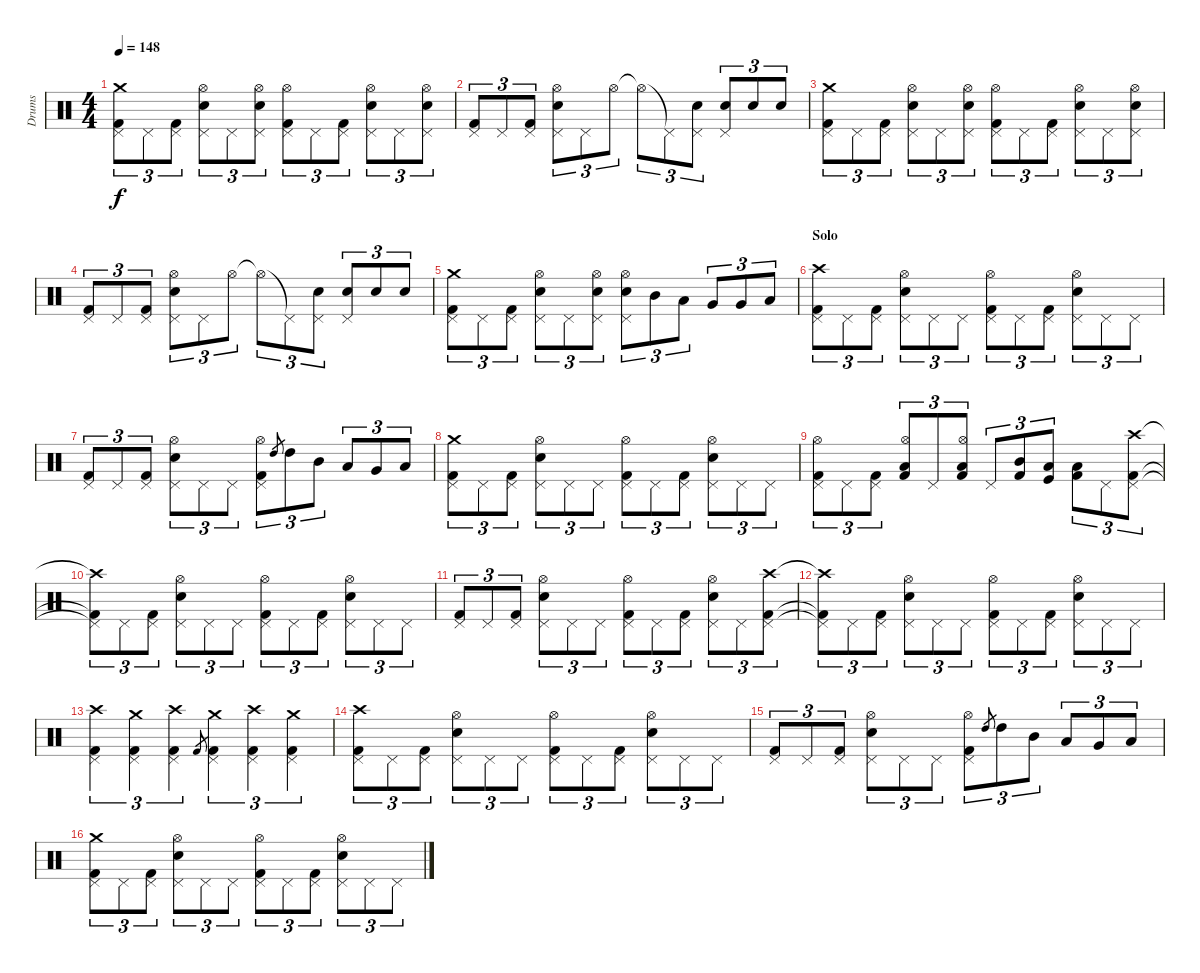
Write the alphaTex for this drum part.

\track ("Drums" "Drums") {instrument percussion}
\staff {score}
\articulation defaults
\ts (4 4)
\tempo 148
\clef neutral
\ks c
("Kick (hit) 2" "Pedal Hi-Hat (hit)" "Crash medium (hit)").8{tu (3 2) dy f} "Pedal Hi-Hat (hit)".8{tu (3 2)} ("Kick (hit) 2" "Pedal Hi-Hat (hit)").8{tu (3 2)} ("Snare (hit) 2" "Pedal Hi-Hat (hit)" "Hi-Hat (open)").8{tu (3 2)} "Pedal Hi-Hat (hit)".8{tu (3 2)} ("Snare (hit) 2" "Pedal Hi-Hat (hit)" "Hi-Hat (open)").8{tu (3 2)} ("Kick (hit) 2" "Pedal Hi-Hat (hit)" "Hi-Hat (open)").8{tu (3 2)} "Pedal Hi-Hat (hit)".8{tu (3 2)} ("Kick (hit) 2" "Pedal Hi-Hat (hit)").8{tu (3 2)} ("Snare (hit) 2" "Pedal Hi-Hat (hit)" "Hi-Hat (open)").8{tu (3 2)} "Pedal Hi-Hat (hit)".8{tu (3 2)} ("Snare (hit) 2" "Pedal Hi-Hat (hit)" "Hi-Hat (open)").8{tu (3 2)} |
("Kick (hit) 2" "Pedal Hi-Hat (hit)").8{tu (3 2)} "Pedal Hi-Hat (hit)".8{tu (3 2)} ("Kick (hit) 2" "Pedal Hi-Hat (hit)").8{tu (3 2)} ("Snare (hit) 2" "Pedal Hi-Hat (hit)" "Hi-Hat (open)").8{tu (3 2)} "Pedal Hi-Hat (hit)".8{tu (3 2)} "Hi-Hat (open)".8{tu (3 2)} "Hi-Hat (open)"{t}.8{tu (3 2)} "Pedal Hi-Hat (hit)"{t}.8{tu (3 2)} ("Snare (hit) 2" "Pedal Hi-Hat (hit)").8{tu (3 2)} ("Snare (hit) 2" "Pedal Hi-Hat (hit)").8{tu (3 2)} "Snare (hit) 2".8{tu (3 2)} "Snare (hit) 2".8{tu (3 2)} |
("Kick (hit) 2" "Pedal Hi-Hat (hit)" "Crash medium (hit)").8{tu (3 2)} "Pedal Hi-Hat (hit)".8{tu (3 2)} ("Kick (hit) 2" "Pedal Hi-Hat (hit)").8{tu (3 2)} ("Snare (hit) 2" "Pedal Hi-Hat (hit)" "Hi-Hat (open)").8{tu (3 2)} "Pedal Hi-Hat (hit)".8{tu (3 2)} ("Snare (hit) 2" "Pedal Hi-Hat (hit)" "Hi-Hat (open)").8{tu (3 2)} ("Kick (hit) 2" "Pedal Hi-Hat (hit)" "Hi-Hat (open)").8{tu (3 2)} "Pedal Hi-Hat (hit)".8{tu (3 2)} ("Kick (hit) 2" "Pedal Hi-Hat (hit)").8{tu (3 2)} ("Snare (hit) 2" "Pedal Hi-Hat (hit)" "Hi-Hat (open)").8{tu (3 2)} "Pedal Hi-Hat (hit)".8{tu (3 2)} ("Snare (hit) 2" "Pedal Hi-Hat (hit)" "Hi-Hat (open)").8{tu (3 2)} |
("Kick (hit) 2" "Pedal Hi-Hat (hit)").8{tu (3 2)} "Pedal Hi-Hat (hit)".8{tu (3 2)} ("Kick (hit) 2" "Pedal Hi-Hat (hit)").8{tu (3 2)} ("Snare (hit) 2" "Pedal Hi-Hat (hit)" "Hi-Hat (open)").8{tu (3 2)} "Pedal Hi-Hat (hit)".8{tu (3 2)} "Hi-Hat (open)".8{tu (3 2)} "Hi-Hat (open)"{t}.8{tu (3 2)} "Pedal Hi-Hat (hit)"{t}.8{tu (3 2)} ("Snare (hit) 2" "Pedal Hi-Hat (hit)").8{tu (3 2)} ("Snare (hit) 2" "Pedal Hi-Hat (hit)").8{tu (3 2)} "Snare (hit) 2".8{tu (3 2)} "Snare (hit) 2".8{tu (3 2)} |
("Kick (hit) 2" "Pedal Hi-Hat (hit)" "Crash medium (hit)").8{tu (3 2)} "Pedal Hi-Hat (hit)".8{tu (3 2)} ("Kick (hit) 2" "Pedal Hi-Hat (hit)").8{tu (3 2)} ("Snare (hit) 2" "Pedal Hi-Hat (hit)" "Hi-Hat (open)").8{tu (3 2)} "Pedal Hi-Hat (hit)".8{tu (3 2)} ("Snare (hit) 2" "Pedal Hi-Hat (hit)" "Hi-Hat (open)").8{tu (3 2)} ("Snare (hit) 2" "Pedal Hi-Hat (hit)" "Hi-Hat (open)").8{tu (3 2)} "Mid Tom (hit)".8{tu (3 2)} "Low Tom (hit)".8{tu (3 2)} "Very Low Tom (hit)".8{tu (3 2)} "Very Low Tom (hit)".8{tu (3 2)} "Low Floor Tom (hit)".8{tu (3 2)} |
\section ("" "Solo")
("Kick (hit) 2" "Pedal Hi-Hat (hit)" "Crash high (hit)").8{tu (3 2)} "Pedal Hi-Hat (hit)".8{tu (3 2)} ("Kick (hit) 2" "Pedal Hi-Hat (hit)").8{tu (3 2)} ("Snare (hit) 2" "Pedal Hi-Hat (hit)" "Hi-Hat (open)").8{tu (3 2)} "Pedal Hi-Hat (hit)".8{tu (3 2)} "Pedal Hi-Hat (hit)".8{tu (3 2)} ("Kick (hit) 2" "Pedal Hi-Hat (hit)" "Hi-Hat (open)").8{tu (3 2)} "Pedal Hi-Hat (hit)".8{tu (3 2)} ("Kick (hit) 2" "Pedal Hi-Hat (hit)").8{tu (3 2)} ("Snare (hit) 2" "Pedal Hi-Hat (hit)" "Hi-Hat (open)").8{tu (3 2)} "Pedal Hi-Hat (hit)".8{tu (3 2)} "Pedal Hi-Hat (hit)".8{tu (3 2)} |
("Kick (hit) 2" "Pedal Hi-Hat (hit)").8{tu (3 2)} "Pedal Hi-Hat (hit)".8{tu (3 2)} ("Kick (hit) 2" "Pedal Hi-Hat (hit)").8{tu (3 2)} ("Snare (hit) 2" "Pedal Hi-Hat (hit)" "Hi-Hat (open)").8{tu (3 2)} "Pedal Hi-Hat (hit)".8{tu (3 2)} "Pedal Hi-Hat (hit)".8{tu (3 2)} ("Kick (hit) 2" "Pedal Hi-Hat (hit)" "Hi-Hat (open)").8{tu (3 2)} "High Tom (hit)".8{gr} "High Tom (hit)".8{tu (3 2)} "Mid Tom (hit)".8{tu (3 2)} "Low Tom (hit)".8{tu (3 2)} "Very Low Tom (hit)".8{tu (3 2)} "Low Floor Tom (hit)".8{tu (3 2)} |
("Kick (hit) 2" "Pedal Hi-Hat (hit)" "Crash medium (hit)").8{tu (3 2)} "Pedal Hi-Hat (hit)".8{tu (3 2)} ("Kick (hit) 2" "Pedal Hi-Hat (hit)").8{tu (3 2)} ("Snare (hit) 2" "Pedal Hi-Hat (hit)" "Hi-Hat (open)").8{tu (3 2)} "Pedal Hi-Hat (hit)".8{tu (3 2)} "Pedal Hi-Hat (hit)".8{tu (3 2)} ("Kick (hit) 2" "Pedal Hi-Hat (hit)" "Hi-Hat (open)").8{tu (3 2)} "Pedal Hi-Hat (hit)".8{tu (3 2)} ("Kick (hit) 2" "Pedal Hi-Hat (hit)").8{tu (3 2)} ("Snare (hit) 2" "Pedal Hi-Hat (hit)" "Hi-Hat (open)").8{tu (3 2)} "Pedal Hi-Hat (hit)".8{tu (3 2)} "Pedal Hi-Hat (hit)".8{tu (3 2)} |
("Kick (hit) 2" "Pedal Hi-Hat (hit)" "Hi-Hat (open)").8{tu (3 2)} "Pedal Hi-Hat (hit)".8{tu (3 2)} ("Kick (hit) 2" "Pedal Hi-Hat (hit)").8{tu (3 2)} ("Low Tom (hit)" "Kick (hit) 2" "Hi-Hat (open)").8{tu (3 2)} "Pedal Hi-Hat (hit)".8{tu (3 2)} ("Low Tom (hit)" "Kick (hit) 2" "Hi-Hat (open)").8{tu (3 2)} "Pedal Hi-Hat (hit)".8{tu (3 2)} ("Mid Tom (hit)" "Kick (hit) 2").8{tu (3 2)} ("Low Tom (hit)" "Kick (hit)").8{tu (3 2)} ("Low Floor Tom (hit)" "Kick (hit) 2").8{tu (3 2)} "Pedal Hi-Hat (hit)".8{tu (3 2)} ("Kick (hit) 2" "Pedal Hi-Hat (hit)" "Crash high (hit)").8{tu (3 2)} |
("Kick (hit) 2"{t} "Pedal Hi-Hat (hit)"{t} "Crash high (hit)"{t}).8{tu (3 2)} "Pedal Hi-Hat (hit)".8{tu (3 2)} ("Kick (hit) 2" "Pedal Hi-Hat (hit)").8{tu (3 2)} ("Snare (hit) 2" "Pedal Hi-Hat (hit)" "Hi-Hat (open)").8{tu (3 2)} "Pedal Hi-Hat (hit)".8{tu (3 2)} "Pedal Hi-Hat (hit)".8{tu (3 2)} ("Kick (hit) 2" "Pedal Hi-Hat (hit)" "Hi-Hat (open)").8{tu (3 2)} "Pedal Hi-Hat (hit)".8{tu (3 2)} ("Kick (hit) 2" "Pedal Hi-Hat (hit)").8{tu (3 2)} ("Snare (hit) 2" "Pedal Hi-Hat (hit)" "Hi-Hat (open)").8{tu (3 2)} "Pedal Hi-Hat (hit)".8{tu (3 2)} "Pedal Hi-Hat (hit)".8{tu (3 2)} |
("Kick (hit) 2" "Pedal Hi-Hat (hit)").8{tu (3 2)} "Pedal Hi-Hat (hit)".8{tu (3 2)} ("Kick (hit) 2" "Pedal Hi-Hat (hit)").8{tu (3 2)} ("Snare (hit) 2" "Pedal Hi-Hat (hit)" "Hi-Hat (open)").8{tu (3 2)} "Pedal Hi-Hat (hit)".8{tu (3 2)} "Pedal Hi-Hat (hit)".8{tu (3 2)} ("Kick (hit) 2" "Pedal Hi-Hat (hit)" "Hi-Hat (open)").8{tu (3 2)} "Pedal Hi-Hat (hit)".8{tu (3 2)} ("Kick (hit) 2" "Pedal Hi-Hat (hit)").8{tu (3 2)} ("Snare (hit) 2" "Pedal Hi-Hat (hit)" "Hi-Hat (open)").8{tu (3 2)} "Pedal Hi-Hat (hit)".8{tu (3 2)} ("Kick (hit) 2" "Pedal Hi-Hat (hit)" "Crash high (hit)").8{tu (3 2)} |
("Kick (hit) 2"{t} "Pedal Hi-Hat (hit)"{t} "Crash high (hit)"{t}).8{tu (3 2)} "Pedal Hi-Hat (hit)".8{tu (3 2)} ("Kick (hit) 2" "Pedal Hi-Hat (hit)").8{tu (3 2)} ("Snare (hit) 2" "Pedal Hi-Hat (hit)" "Hi-Hat (open)").8{tu (3 2)} "Pedal Hi-Hat (hit)".8{tu (3 2)} "Pedal Hi-Hat (hit)".8{tu (3 2)} ("Kick (hit) 2" "Pedal Hi-Hat (hit)" "Hi-Hat (open)").8{tu (3 2)} "Pedal Hi-Hat (hit)".8{tu (3 2)} ("Kick (hit) 2" "Pedal Hi-Hat (hit)").8{tu (3 2)} ("Snare (hit) 2" "Pedal Hi-Hat (hit)" "Hi-Hat (open)").8{tu (3 2)} "Pedal Hi-Hat (hit)".8{tu (3 2)} "Pedal Hi-Hat (hit)".8{tu (3 2)} |
("Kick (hit) 2" "Pedal Hi-Hat (hit)" "Crash high (hit)").4{tu (3 2)} ("Kick (hit) 2" "Pedal Hi-Hat (hit)" "Crash medium (hit)").4{tu (3 2)} ("Kick (hit) 2" "Pedal Hi-Hat (hit)" "Crash high (hit)").4{tu (3 2)} "Kick (hit) 2".8{gr} ("Kick (hit) 2" "Pedal Hi-Hat (hit)" "Crash medium (hit)").4{tu (3 2)} ("Kick (hit) 2" "Pedal Hi-Hat (hit)" "Crash high (hit)").4{tu (3 2)} ("Kick (hit) 2" "Pedal Hi-Hat (hit)" "Crash medium (hit)").4{tu (3 2)} |
("Kick (hit) 2" "Pedal Hi-Hat (hit)" "Crash high (hit)").8{tu (3 2)} "Pedal Hi-Hat (hit)".8{tu (3 2)} ("Kick (hit) 2" "Pedal Hi-Hat (hit)").8{tu (3 2)} ("Snare (hit) 2" "Pedal Hi-Hat (hit)" "Hi-Hat (open)").8{tu (3 2)} "Pedal Hi-Hat (hit)".8{tu (3 2)} "Pedal Hi-Hat (hit)".8{tu (3 2)} ("Kick (hit) 2" "Pedal Hi-Hat (hit)" "Hi-Hat (open)").8{tu (3 2)} "Pedal Hi-Hat (hit)".8{tu (3 2)} ("Kick (hit) 2" "Pedal Hi-Hat (hit)").8{tu (3 2)} ("Snare (hit) 2" "Pedal Hi-Hat (hit)" "Hi-Hat (open)").8{tu (3 2)} "Pedal Hi-Hat (hit)".8{tu (3 2)} "Pedal Hi-Hat (hit)".8{tu (3 2)} |
("Kick (hit) 2" "Pedal Hi-Hat (hit)").8{tu (3 2)} "Pedal Hi-Hat (hit)".8{tu (3 2)} ("Kick (hit) 2" "Pedal Hi-Hat (hit)").8{tu (3 2)} ("Snare (hit) 2" "Pedal Hi-Hat (hit)" "Hi-Hat (open)").8{tu (3 2)} "Pedal Hi-Hat (hit)".8{tu (3 2)} "Pedal Hi-Hat (hit)".8{tu (3 2)} ("Kick (hit) 2" "Pedal Hi-Hat (hit)" "Hi-Hat (open)").8{tu (3 2)} "High Tom (hit)".8{gr} "High Tom (hit)".8{tu (3 2)} "Mid Tom (hit)".8{tu (3 2)} "Low Tom (hit)".8{tu (3 2)} "Very Low Tom (hit)".8{tu (3 2)} "Low Floor Tom (hit)".8{tu (3 2)} |
("Kick (hit) 2" "Pedal Hi-Hat (hit)" "Crash medium (hit)").8{tu (3 2)} "Pedal Hi-Hat (hit)".8{tu (3 2)} ("Kick (hit) 2" "Pedal Hi-Hat (hit)").8{tu (3 2)} ("Snare (hit) 2" "Pedal Hi-Hat (hit)" "Hi-Hat (open)").8{tu (3 2)} "Pedal Hi-Hat (hit)".8{tu (3 2)} "Pedal Hi-Hat (hit)".8{tu (3 2)} ("Kick (hit) 2" "Pedal Hi-Hat (hit)" "Hi-Hat (open)").8{tu (3 2)} "Pedal Hi-Hat (hit)".8{tu (3 2)} ("Kick (hit) 2" "Pedal Hi-Hat (hit)").8{tu (3 2)} ("Snare (hit) 2" "Pedal Hi-Hat (hit)" "Hi-Hat (open)").8{tu (3 2)} "Pedal Hi-Hat (hit)".8{tu (3 2)} "Pedal Hi-Hat (hit)".8{tu (3 2)}
